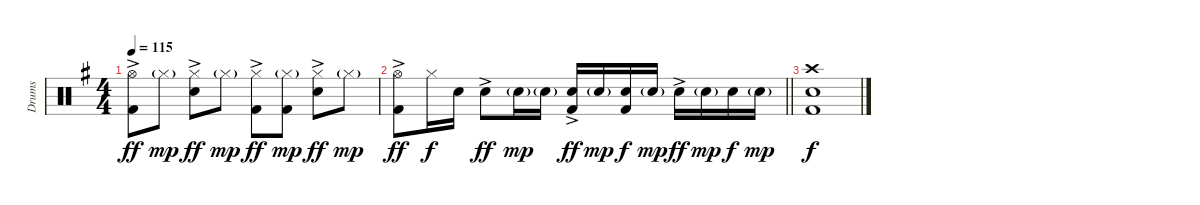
\track ("Drums" "Drums") {instrument percussion}
\staff {score}
\articulation defaults
\ts (4 4)
\tempo 115
\clef neutral
\ks g
("Hi-Hat (open)" "Kick (hit) 2"{ac}).8{dy ff} "Hi-Hat (closed)"{g}.8{dy mp} ("Hi-Hat (closed)" "Snare (hit) 2"{ac}).8{dy ff} "Hi-Hat (closed)"{g}.8{dy mp} ("Hi-Hat (closed)" "Kick (hit) 2"{ac}).8{dy ff} ("Hi-Hat (closed)"{g} "Kick (hit) 2").8{dy mp} ("Hi-Hat (closed)" "Snare (hit) 2"{ac}).8{dy ff} "Hi-Hat (closed)"{g}.8{dy mp} |
\barLineRight lightlight
("Hi-Hat (open)" "Kick (hit) 2"{ac}).8{dy ff} "Hi-Hat (closed)".16{dy f} "Snare (hit) 2".16 "Snare (hit) 2"{ac}.8{dy ff} "Snare (hit) 2"{g}.16{dy mp} "Snare (hit) 2"{g}.16 ("Snare (hit) 2" "Kick (hit) 2"{ac}).16{dy ff} "Snare (hit) 2"{g}.16{dy mp} ("Snare (hit) 2" "Kick (hit) 2").16{dy f} "Snare (hit) 2"{g}.16{dy mp} "Snare (hit) 2"{ac}.16{dy ff} "Snare (hit) 2"{g}.16{dy mp} "Snare (hit) 2".16{dy f} "Snare (hit) 2"{g}.16{dy mp} |
("Crash high (hit)" "Snare (hit) 2" "Kick (hit) 2").1{dy f}
